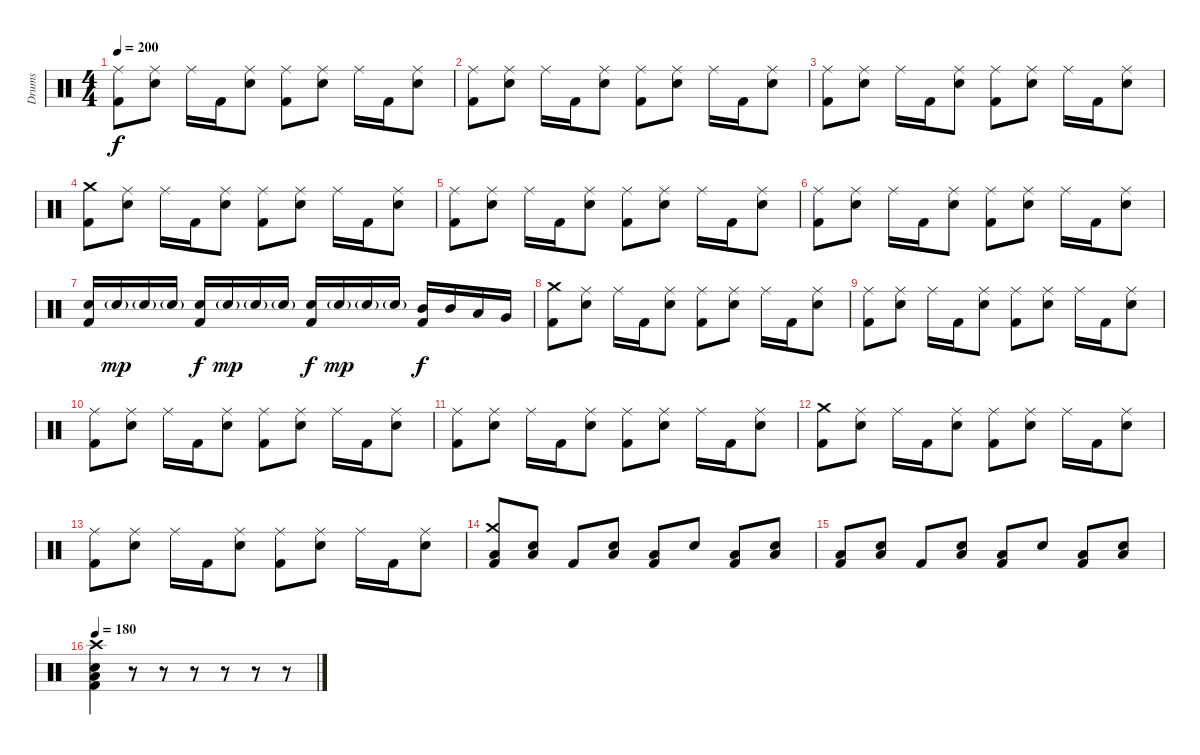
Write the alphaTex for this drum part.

\track ("Drums" "Drums") {instrument percussion}
\staff {score}
\articulation defaults
\ts (4 4)
\tempo 200
\clef neutral
\ks c
("Ride (middle)" "Kick (hit) 2").8{dy f} ("Ride (middle)" "Electric Snare (hit)").8 "Ride (middle)".16 "Kick (hit) 2".16 ("Ride (middle)" "Electric Snare (hit)").8 ("Ride (middle)" "Kick (hit) 2").8 ("Ride (middle)" "Electric Snare (hit)").8 "Ride (middle)".16 "Kick (hit) 2".16 ("Ride (middle)" "Electric Snare (hit)").8 |
("Ride (middle)" "Kick (hit) 2").8 ("Ride (middle)" "Electric Snare (hit)").8 "Ride (middle)".16 "Kick (hit) 2".16 ("Ride (middle)" "Electric Snare (hit)").8 ("Ride (middle)" "Kick (hit) 2").8 ("Ride (middle)" "Electric Snare (hit)").8 "Ride (middle)".16 "Kick (hit) 2".16 ("Ride (middle)" "Electric Snare (hit)").8 |
("Ride (middle)" "Kick (hit) 2").8 ("Ride (middle)" "Electric Snare (hit)").8 "Ride (middle)".16 "Kick (hit) 2".16 ("Ride (middle)" "Electric Snare (hit)").8 ("Ride (middle)" "Kick (hit) 2").8 ("Ride (middle)" "Electric Snare (hit)").8 "Ride (middle)".16 "Kick (hit) 2".16 ("Ride (middle)" "Electric Snare (hit)").8 |
("Crash medium (hit)" "Kick (hit) 2").8 ("Ride (middle)" "Electric Snare (hit)").8 "Ride (middle)".16 "Kick (hit) 2".16 ("Ride (middle)" "Electric Snare (hit)").8 ("Ride (middle)" "Kick (hit) 2").8 ("Ride (middle)" "Electric Snare (hit)").8 "Ride (middle)".16 "Kick (hit) 2".16 ("Ride (middle)" "Electric Snare (hit)").8 |
("Ride (middle)" "Kick (hit) 2").8 ("Ride (middle)" "Electric Snare (hit)").8 "Ride (middle)".16 "Kick (hit) 2".16 ("Ride (middle)" "Electric Snare (hit)").8 ("Ride (middle)" "Kick (hit) 2").8 ("Ride (middle)" "Electric Snare (hit)").8 "Ride (middle)".16 "Kick (hit) 2".16 ("Ride (middle)" "Electric Snare (hit)").8 |
("Ride (middle)" "Kick (hit) 2").8 ("Ride (middle)" "Electric Snare (hit)").8 "Ride (middle)".16 "Kick (hit) 2".16 ("Ride (middle)" "Electric Snare (hit)").8 ("Ride (middle)" "Kick (hit) 2").8 ("Ride (middle)" "Electric Snare (hit)").8 "Ride (middle)".16 "Kick (hit) 2".16 ("Ride (middle)" "Electric Snare (hit)").8 |
("Electric Snare (hit)" "Kick (hit) 2").16 "Electric Snare (hit)"{g}.16{dy mp} "Electric Snare (hit)"{g}.16 "Electric Snare (hit)"{g}.16 ("Electric Snare (hit)" "Kick (hit) 2").16{dy f} "Electric Snare (hit)"{g}.16{dy mp} "Electric Snare (hit)"{g}.16 "Electric Snare (hit)"{g}.16 ("Electric Snare (hit)" "Kick (hit) 2").16{dy f} "Electric Snare (hit)"{g}.16{dy mp} "Electric Snare (hit)"{g}.16 "Electric Snare (hit)"{g}.16 ("Mid Tom (hit)" "Kick (hit) 2").16{dy f} "Mid Tom (hit)".16 "Low Tom (hit)".16 "Very Low Tom (hit)".16 |
("Crash medium (hit)" "Kick (hit) 2").8 ("Ride (middle)" "Electric Snare (hit)").8 "Ride (middle)".16 "Kick (hit) 2".16 ("Ride (middle)" "Electric Snare (hit)").8 ("Ride (middle)" "Kick (hit) 2").8 ("Ride (middle)" "Electric Snare (hit)").8 "Ride (middle)".16 "Kick (hit) 2".16 ("Ride (middle)" "Electric Snare (hit)").8 |
("Ride (middle)" "Kick (hit) 2").8 ("Ride (middle)" "Electric Snare (hit)").8 "Ride (middle)".16 "Kick (hit) 2".16 ("Ride (middle)" "Electric Snare (hit)").8 ("Ride (middle)" "Kick (hit) 2").8 ("Ride (middle)" "Electric Snare (hit)").8 "Ride (middle)".16 "Kick (hit) 2".16 ("Ride (middle)" "Electric Snare (hit)").8 |
("Ride (middle)" "Kick (hit) 2").8 ("Ride (middle)" "Electric Snare (hit)").8 "Ride (middle)".16 "Kick (hit) 2".16 ("Ride (middle)" "Electric Snare (hit)").8 ("Ride (middle)" "Kick (hit) 2").8 ("Ride (middle)" "Electric Snare (hit)").8 "Ride (middle)".16 "Kick (hit) 2".16 ("Ride (middle)" "Electric Snare (hit)").8 |
("Ride (middle)" "Kick (hit) 2").8 ("Ride (middle)" "Electric Snare (hit)").8 "Ride (middle)".16 "Kick (hit) 2".16 ("Ride (middle)" "Electric Snare (hit)").8 ("Ride (middle)" "Kick (hit) 2").8 ("Ride (middle)" "Electric Snare (hit)").8 "Ride (middle)".16 "Kick (hit) 2".16 ("Ride (middle)" "Electric Snare (hit)").8 |
("Crash medium (hit)" "Kick (hit) 2").8 ("Ride (middle)" "Electric Snare (hit)").8 "Ride (middle)".16 "Kick (hit) 2".16 ("Ride (middle)" "Electric Snare (hit)").8 ("Ride (middle)" "Kick (hit) 2").8 ("Ride (middle)" "Electric Snare (hit)").8 "Ride (middle)".16 "Kick (hit) 2".16 ("Ride (middle)" "Electric Snare (hit)").8 |
("Ride (middle)" "Kick (hit) 2").8 ("Ride (middle)" "Electric Snare (hit)").8 "Ride (middle)".16 "Kick (hit) 2".16 ("Ride (middle)" "Electric Snare (hit)").8 ("Ride (middle)" "Kick (hit) 2").8 ("Ride (middle)" "Electric Snare (hit)").8 "Ride (middle)".16 "Kick (hit) 2".16 ("Ride (middle)" "Electric Snare (hit)").8 |
("Crash medium (hit)" "Low Floor Tom (hit)" "Kick (hit) 2").8 ("Low Floor Tom (hit)" "Electric Snare (hit)").8 "Kick (hit) 2".8 ("Low Floor Tom (hit)" "Electric Snare (hit)").8 ("Low Floor Tom (hit)" "Kick (hit) 2").8 "Electric Snare (hit)".8 ("Low Floor Tom (hit)" "Kick (hit) 2").8 ("Low Floor Tom (hit)" "Electric Snare (hit)").8 |
("Low Floor Tom (hit)" "Kick (hit) 2").8 ("Low Floor Tom (hit)" "Electric Snare (hit)").8 "Kick (hit) 2".8 ("Low Floor Tom (hit)" "Electric Snare (hit)").8 ("Low Floor Tom (hit)" "Kick (hit) 2").8 "Electric Snare (hit)".8 ("Low Floor Tom (hit)" "Kick (hit) 2").8 ("Low Floor Tom (hit)" "Electric Snare (hit)").8 |
\tempo 180
("Crash high (hit)" "Low Floor Tom (hit)" "Electric Snare (hit)" "Kick (hit) 2").4 r.8{volume 0} r.8 r.8 r.8 r.8 r.8
